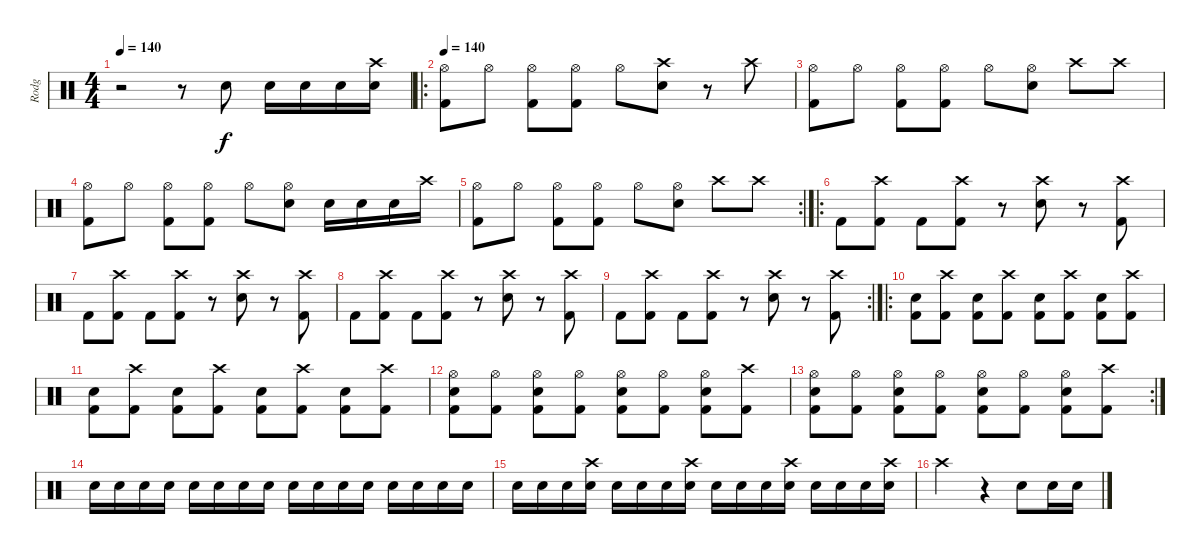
\track ("Rodg" "Rodg") {instrument percussion}
\staff {score}
\articulation defaults
\ts (4 4)
\tempo 140
\clef neutral
\ks c
r.2{dy f} r.8 "Electric Snare (hit)".8 "Electric Snare (hit)".16 "Electric Snare (hit)".16 "Electric Snare (hit)".16 ("Crash high (hit)" "Electric Snare (hit)").16 |
\ro
\tempo 140
("Hi-Hat (open)" "Kick (hit) 2").8 "Hi-Hat (open)".8 ("Hi-Hat (open)" "Kick (hit) 2").8 ("Hi-Hat (open)" "Kick (hit) 2").8 "Hi-Hat (open)".8 ("Crash high (hit)" "Electric Snare (hit)").8 r.8 "Crash high (hit)".8 |
("Hi-Hat (open)" "Kick (hit) 2").8 "Hi-Hat (open)".8 ("Hi-Hat (open)" "Kick (hit) 2").8 ("Hi-Hat (open)" "Kick (hit) 2").8 "Hi-Hat (open)".8 ("Hi-Hat (open)" "Electric Snare (hit)").8 "Crash high (hit)".8 "Crash high (hit)".8 |
("Hi-Hat (open)" "Kick (hit) 2").8 "Hi-Hat (open)".8 ("Hi-Hat (open)" "Kick (hit) 2").8 ("Hi-Hat (open)" "Kick (hit) 2").8 "Hi-Hat (open)".8 ("Hi-Hat (open)" "Electric Snare (hit)").8 "Electric Snare (hit)".16 "Electric Snare (hit)".16 "Electric Snare (hit)".16 "Crash high (hit)".16 |
\rc 2
("Hi-Hat (open)" "Kick (hit) 2").8 "Hi-Hat (open)".8 ("Hi-Hat (open)" "Kick (hit) 2").8 ("Hi-Hat (open)" "Kick (hit) 2").8 "Hi-Hat (open)".8 ("Hi-Hat (open)" "Electric Snare (hit)").8 "Crash high (hit)".8 "Crash high (hit)".8 |
\ro "Kick (hit) 2".8
("Crash high (hit)" "Kick (hit) 2").8 "Kick (hit) 2".8 ("Crash high (hit)" "Kick (hit) 2").8 r.8 ("Crash high (hit)" "Electric Snare (hit)").8 r.8 ("Crash high (hit)" "Kick (hit) 2").8 |
"Kick (hit) 2".8 ("Crash high (hit)" "Kick (hit) 2").8 "Kick (hit) 2".8 ("Crash high (hit)" "Kick (hit) 2").8 r.8 ("Crash high (hit)" "Electric Snare (hit)").8 r.8 ("Crash high (hit)" "Kick (hit) 2").8 |
"Kick (hit) 2".8 ("Crash high (hit)" "Kick (hit) 2").8 "Kick (hit) 2".8 ("Crash high (hit)" "Kick (hit) 2").8 r.8 ("Crash high (hit)" "Electric Snare (hit)").8 r.8 ("Crash high (hit)" "Kick (hit) 2").8 |
\rc 2 "Kick (hit) 2".8
("Crash high (hit)" "Kick (hit) 2").8 "Kick (hit) 2".8 ("Crash high (hit)" "Kick (hit) 2").8 r.8 ("Crash high (hit)" "Electric Snare (hit)").8 r.8 ("Crash high (hit)" "Kick (hit) 2").8 |
\ro
("Electric Snare (hit)" "Kick (hit) 2").8 ("Crash high (hit)" "Kick (hit) 2").8 ("Electric Snare (hit)" "Kick (hit) 2").8 ("Crash high (hit)" "Kick (hit) 2").8 ("Electric Snare (hit)" "Kick (hit) 2").8 ("Crash high (hit)" "Kick (hit) 2").8 ("Electric Snare (hit)" "Kick (hit) 2").8 ("Crash high (hit)" "Kick (hit) 2").8 |
("Electric Snare (hit)" "Kick (hit) 2").8 ("Crash high (hit)" "Kick (hit) 2").8 ("Electric Snare (hit)" "Kick (hit) 2").8 ("Crash high (hit)" "Kick (hit) 2").8 ("Electric Snare (hit)" "Kick (hit) 2").8 ("Crash high (hit)" "Kick (hit) 2").8 ("Electric Snare (hit)" "Kick (hit) 2").8 ("Crash high (hit)" "Kick (hit) 2").8 |
("Hi-Hat (open)" "Electric Snare (hit)" "Kick (hit) 2").8 ("Hi-Hat (open)" "Kick (hit) 2").8 ("Hi-Hat (open)" "Electric Snare (hit)" "Kick (hit) 2").8 ("Hi-Hat (open)" "Kick (hit) 2").8 ("Hi-Hat (open)" "Electric Snare (hit)" "Kick (hit) 2").8 ("Hi-Hat (open)" "Kick (hit) 2").8 ("Hi-Hat (open)" "Electric Snare (hit)" "Kick (hit) 2").8 ("Crash high (hit)" "Kick (hit) 2").8 |
\rc 2
("Hi-Hat (open)" "Electric Snare (hit)" "Kick (hit) 2").8 ("Hi-Hat (open)" "Kick (hit) 2").8 ("Hi-Hat (open)" "Electric Snare (hit)" "Kick (hit) 2").8 ("Hi-Hat (open)" "Kick (hit) 2").8 ("Hi-Hat (open)" "Electric Snare (hit)" "Kick (hit) 2").8 ("Hi-Hat (open)" "Kick (hit) 2").8 ("Hi-Hat (open)" "Electric Snare (hit)" "Kick (hit) 2").8 ("Crash high (hit)" "Kick (hit) 2").8 |
"Electric Snare (hit)".16 "Electric Snare (hit)".16 "Electric Snare (hit)".16 "Electric Snare (hit)".16 "Electric Snare (hit)".16 "Electric Snare (hit)".16 "Electric Snare (hit)".16 "Electric Snare (hit)".16 "Electric Snare (hit)".16 "Electric Snare (hit)".16 "Electric Snare (hit)".16 "Electric Snare (hit)".16 "Electric Snare (hit)".16 "Electric Snare (hit)".16 "Electric Snare (hit)".16 "Electric Snare (hit)".16 |
"Electric Snare (hit)".16 "Electric Snare (hit)".16 "Electric Snare (hit)".16 ("Crash high (hit)" "Electric Snare (hit)").16 "Electric Snare (hit)".16 "Electric Snare (hit)".16 "Electric Snare (hit)".16 ("Crash high (hit)" "Electric Snare (hit)").16 "Electric Snare (hit)".16 "Electric Snare (hit)".16 "Electric Snare (hit)".16 ("Crash high (hit)" "Electric Snare (hit)").16 "Electric Snare (hit)".16 "Electric Snare (hit)".16 "Electric Snare (hit)".16 ("Crash high (hit)" "Electric Snare (hit)").16 |
"Crash high (hit)".2 r.4 "Electric Snare (hit)".8 "Electric Snare (hit)".16 "Electric Snare (hit)".16
